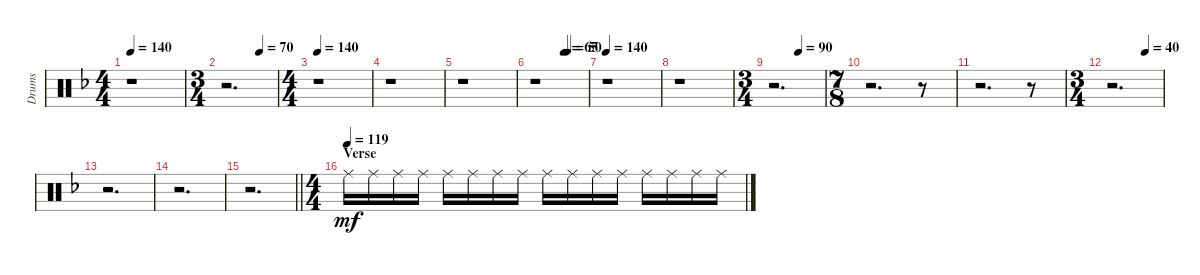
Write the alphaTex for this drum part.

\track ("Drums" "Drums") {instrument percussion}
\staff {score}
\articulation defaults
\ts (4 4)
\tempo 140
\clef neutral
\ks dminor
r.1{dy f} |
\ts (3 4)
\tempo (70 0.6663194444444445)
r.2{d} |
\ts (4 4)
\tempo 140
r.1 |
r.1 |
r.1 |
\tempo (70 0.5625)
\tempo (65 0.5625)
\tempo (50 0.625)
r.1 |
\tempo 140
r.1 |
r.1 |
\ts (3 4)
\tempo (90 0.5)
r.2{d} |
\ts (7 8)
r.2{d} r.8 |
r.2{d} r.8 |
\ts (3 4)
\tempo (40 0.6666666666666666)
r.2{d} |
r.2{d} |
r.2{d} |
\barLineRight lightlight
r.2{d} |
\ts (4 4)
\section ("" "Verse")
\tempo (119)
"Ride (middle)".16{dy mf} "Ride (middle)".16 "Ride (middle)".16 "Ride (middle)".16 "Ride (middle)".16 "Ride (middle)".16 "Ride (middle)".16 "Ride (middle)".16 "Ride (middle)".16 "Ride (middle)".16 "Ride (middle)".16 "Ride (middle)".16 "Ride (middle)".16 "Ride (middle)".16 "Ride (middle)".16 "Ride (middle)".16
